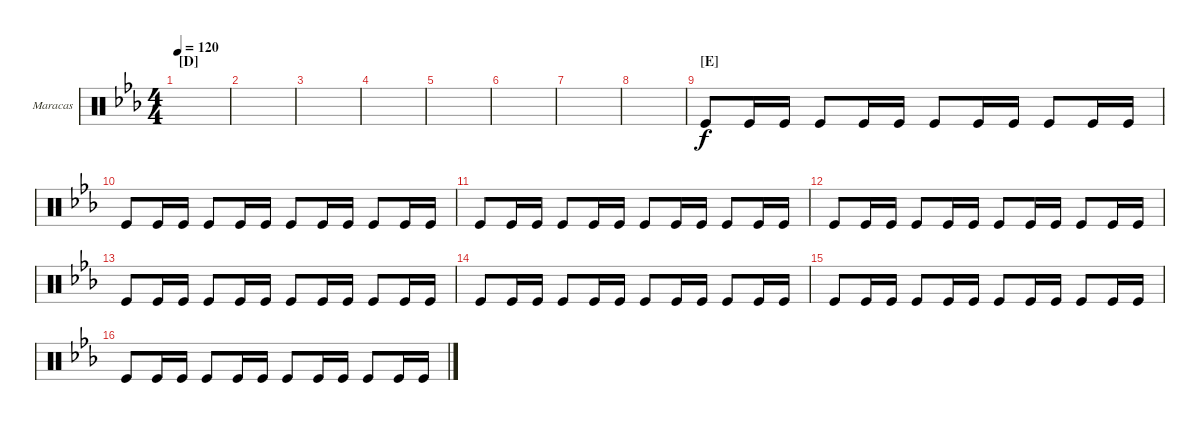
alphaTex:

\defaultSystemsLayout 4
\bracketExtendMode groupsimilarinstruments
\firstSystemTrackNameOrientation horizontal
\otherSystemsTrackNameOrientation horizontal
\track ("Maracas" "Maracas") {instrument percussion}
\staff {score}
\articulation defaults
\ts (4 4)
\section ("D" "")
\tempo 120
\clef neutral
\ks eb
|
|
|
|
|
|
|
|
\section ("E" "")
"Kick (hit)".8 "Kick (hit)".16 "Kick (hit)".16 "Kick (hit)".8 "Kick (hit)".16 "Kick (hit)".16 "Kick (hit)".8 "Kick (hit)".16 "Kick (hit)".16 "Kick (hit)".8 "Kick (hit)".16 "Kick (hit)".16 |
"Kick (hit)".8 "Kick (hit)".16 "Kick (hit)".16 "Kick (hit)".8 "Kick (hit)".16 "Kick (hit)".16 "Kick (hit)".8 "Kick (hit)".16 "Kick (hit)".16 "Kick (hit)".8 "Kick (hit)".16 "Kick (hit)".16 |
"Kick (hit)".8 "Kick (hit)".16 "Kick (hit)".16 "Kick (hit)".8 "Kick (hit)".16 "Kick (hit)".16 "Kick (hit)".8 "Kick (hit)".16 "Kick (hit)".16 "Kick (hit)".8 "Kick (hit)".16 "Kick (hit)".16 |
"Kick (hit)".8 "Kick (hit)".16 "Kick (hit)".16 "Kick (hit)".8 "Kick (hit)".16 "Kick (hit)".16 "Kick (hit)".8 "Kick (hit)".16 "Kick (hit)".16 "Kick (hit)".8 "Kick (hit)".16 "Kick (hit)".16 |
"Kick (hit)".8 "Kick (hit)".16 "Kick (hit)".16 "Kick (hit)".8 "Kick (hit)".16 "Kick (hit)".16 "Kick (hit)".8 "Kick (hit)".16 "Kick (hit)".16 "Kick (hit)".8 "Kick (hit)".16 "Kick (hit)".16 |
"Kick (hit)".8 "Kick (hit)".16 "Kick (hit)".16 "Kick (hit)".8 "Kick (hit)".16 "Kick (hit)".16 "Kick (hit)".8 "Kick (hit)".16 "Kick (hit)".16 "Kick (hit)".8 "Kick (hit)".16 "Kick (hit)".16 |
"Kick (hit)".8 "Kick (hit)".16 "Kick (hit)".16 "Kick (hit)".8 "Kick (hit)".16 "Kick (hit)".16 "Kick (hit)".8 "Kick (hit)".16 "Kick (hit)".16 "Kick (hit)".8 "Kick (hit)".16 "Kick (hit)".16 |
"Kick (hit)".8 "Kick (hit)".16 "Kick (hit)".16 "Kick (hit)".8 "Kick (hit)".16 "Kick (hit)".16 "Kick (hit)".8 "Kick (hit)".16 "Kick (hit)".16 "Kick (hit)".8 "Kick (hit)".16 "Kick (hit)".16
